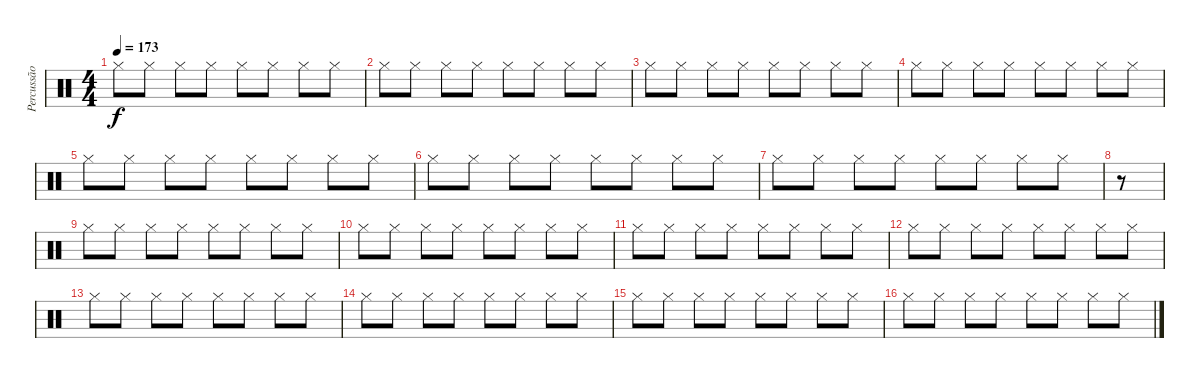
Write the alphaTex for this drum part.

\track ("Percussão" "Percussão") {instrument percussion}
\staff {score}
\articulation defaults
\ts (4 4)
\tempo 173
\clef neutral
\ks c "Hi-Hat (closed)".8{dy f} "Hi-Hat (closed)".8 "Hi-Hat (closed)".8 "Hi-Hat (closed)".8 "Hi-Hat (closed)".8 "Hi-Hat (closed)".8 "Hi-Hat (closed)".8 "Hi-Hat (closed)".8
|
"Hi-Hat (closed)".8 "Hi-Hat (closed)".8 "Hi-Hat (closed)".8 "Hi-Hat (closed)".8 "Hi-Hat (closed)".8 "Hi-Hat (closed)".8 "Hi-Hat (closed)".8 "Hi-Hat (closed)".8 |
"Hi-Hat (closed)".8 "Hi-Hat (closed)".8 "Hi-Hat (closed)".8 "Hi-Hat (closed)".8 "Hi-Hat (closed)".8 "Hi-Hat (closed)".8 "Hi-Hat (closed)".8 "Hi-Hat (closed)".8 |
"Hi-Hat (closed)".8 "Hi-Hat (closed)".8 "Hi-Hat (closed)".8 "Hi-Hat (closed)".8 "Hi-Hat (closed)".8 "Hi-Hat (closed)".8 "Hi-Hat (closed)".8 "Hi-Hat (closed)".8 |
"Hi-Hat (closed)".8 "Hi-Hat (closed)".8 "Hi-Hat (closed)".8 "Hi-Hat (closed)".8 "Hi-Hat (closed)".8 "Hi-Hat (closed)".8 "Hi-Hat (closed)".8 "Hi-Hat (closed)".8 |
"Hi-Hat (closed)".8 "Hi-Hat (closed)".8 "Hi-Hat (closed)".8 "Hi-Hat (closed)".8 "Hi-Hat (closed)".8 "Hi-Hat (closed)".8 "Hi-Hat (closed)".8 "Hi-Hat (closed)".8 |
"Hi-Hat (closed)".8 "Hi-Hat (closed)".8 "Hi-Hat (closed)".8 "Hi-Hat (closed)".8 "Hi-Hat (closed)".8 "Hi-Hat (closed)".8 "Hi-Hat (closed)".8 "Hi-Hat (closed)".8 |
r.8 |
"Hi-Hat (closed)".8 "Hi-Hat (closed)".8 "Hi-Hat (closed)".8 "Hi-Hat (closed)".8 "Hi-Hat (closed)".8 "Hi-Hat (closed)".8 "Hi-Hat (closed)".8 "Hi-Hat (closed)".8 |
"Hi-Hat (closed)".8 "Hi-Hat (closed)".8 "Hi-Hat (closed)".8 "Hi-Hat (closed)".8 "Hi-Hat (closed)".8 "Hi-Hat (closed)".8 "Hi-Hat (closed)".8 "Hi-Hat (closed)".8 |
"Hi-Hat (closed)".8 "Hi-Hat (closed)".8 "Hi-Hat (closed)".8 "Hi-Hat (closed)".8 "Hi-Hat (closed)".8 "Hi-Hat (closed)".8 "Hi-Hat (closed)".8 "Hi-Hat (closed)".8 |
"Hi-Hat (closed)".8 "Hi-Hat (closed)".8 "Hi-Hat (closed)".8 "Hi-Hat (closed)".8 "Hi-Hat (closed)".8 "Hi-Hat (closed)".8 "Hi-Hat (closed)".8 "Hi-Hat (closed)".8 |
"Hi-Hat (closed)".8 "Hi-Hat (closed)".8 "Hi-Hat (closed)".8 "Hi-Hat (closed)".8 "Hi-Hat (closed)".8 "Hi-Hat (closed)".8 "Hi-Hat (closed)".8 "Hi-Hat (closed)".8 |
"Hi-Hat (closed)".8 "Hi-Hat (closed)".8 "Hi-Hat (closed)".8 "Hi-Hat (closed)".8 "Hi-Hat (closed)".8 "Hi-Hat (closed)".8 "Hi-Hat (closed)".8 "Hi-Hat (closed)".8 |
"Hi-Hat (closed)".8 "Hi-Hat (closed)".8 "Hi-Hat (closed)".8 "Hi-Hat (closed)".8 "Hi-Hat (closed)".8 "Hi-Hat (closed)".8 "Hi-Hat (closed)".8 "Hi-Hat (closed)".8 |
"Hi-Hat (closed)".8 "Hi-Hat (closed)".8 "Hi-Hat (closed)".8 "Hi-Hat (closed)".8 "Hi-Hat (closed)".8 "Hi-Hat (closed)".8 "Hi-Hat (closed)".8 "Hi-Hat (closed)".8
